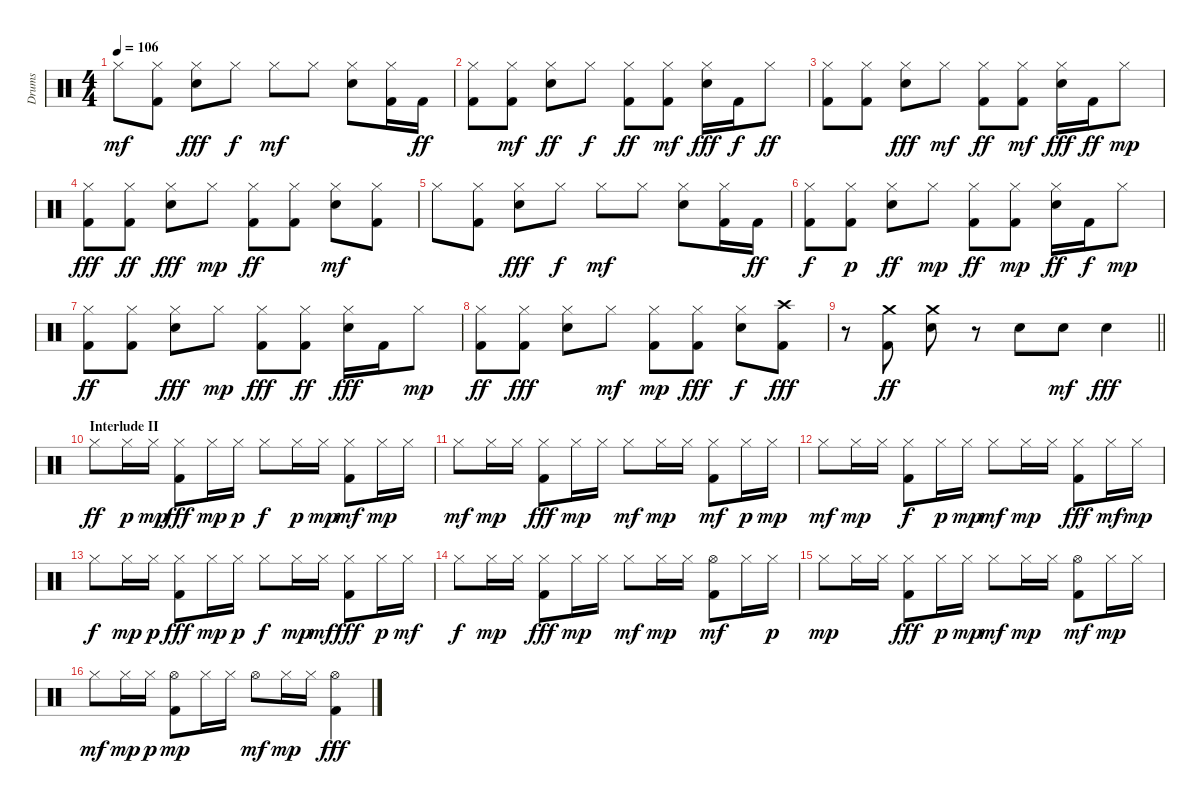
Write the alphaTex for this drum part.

\track ("Drums" "Drums") {instrument percussion}
\staff {score}
\articulation defaults
\ts (4 4)
\tempo 106
\clef neutral
\ks c "Hi-Hat (closed)".8{dy mf}
("Kick (hit) 2" "Hi-Hat (closed)").8 ("Hi-Hat (closed)" "Snare (hit) 2").8{dy fff} "Hi-Hat (closed)".8{dy f} "Hi-Hat (closed)".8{dy mf} "Hi-Hat (closed)".8 ("Snare (hit) 2" "Hi-Hat (closed)").8 ("Kick (hit) 2" "Hi-Hat (closed)").16 "Kick (hit) 2".16{dy ff} |
("Hi-Hat (closed)" "Kick (hit) 2").8 ("Kick (hit) 2" "Hi-Hat (closed)").8{dy mf} ("Hi-Hat (closed)" "Snare (hit) 2").8{dy ff} "Hi-Hat (closed)".8{dy f} ("Hi-Hat (closed)" "Kick (hit) 2").8{dy ff} ("Hi-Hat (closed)" "Kick (hit) 2").8{dy mf} ("Hi-Hat (closed)" "Snare (hit) 2").16{dy fff} "Kick (hit) 2".16{dy f} "Hi-Hat (closed)".8{dy ff} |
("Hi-Hat (closed)" "Kick (hit) 2").8 ("Hi-Hat (closed)" "Kick (hit) 2").8 ("Hi-Hat (closed)" "Snare (hit) 2").8{dy fff} "Hi-Hat (closed)".8{dy mf} ("Hi-Hat (closed)" "Kick (hit) 2").8{dy ff} ("Hi-Hat (closed)" "Kick (hit) 2").8{dy mf} ("Hi-Hat (closed)" "Snare (hit) 2").16{dy fff} "Kick (hit) 2".16{dy ff} "Hi-Hat (closed)".8{dy mp} |
("Hi-Hat (closed)" "Kick (hit) 2").8{dy fff} ("Hi-Hat (closed)" "Kick (hit) 2").8{dy ff} ("Snare (hit) 2" "Hi-Hat (closed)").8{dy fff} "Hi-Hat (closed)".8{dy mp} ("Hi-Hat (closed)" "Kick (hit) 2").8{dy ff} ("Hi-Hat (closed)" "Kick (hit) 2").8 ("Snare (hit) 2" "Hi-Hat (closed)").8{dy mf} ("Kick (hit) 2" "Hi-Hat (closed)").8 |
"Hi-Hat (closed)".8 ("Kick (hit) 2" "Hi-Hat (closed)").8 ("Hi-Hat (closed)" "Snare (hit) 2").8{dy fff} "Hi-Hat (closed)".8{dy f} "Hi-Hat (closed)".8{dy mf} "Hi-Hat (closed)".8 ("Snare (hit) 2" "Hi-Hat (closed)").8 ("Kick (hit) 2" "Hi-Hat (closed)").16 "Kick (hit) 2".16{dy ff} |
("Kick (hit) 2" "Hi-Hat (closed)").8{dy f} ("Kick (hit) 2" "Hi-Hat (closed)").8{dy p} ("Hi-Hat (closed)" "Snare (hit) 2").8{dy ff} "Hi-Hat (closed)".8{dy mp} ("Hi-Hat (closed)" "Kick (hit) 2").8{dy ff} ("Kick (hit) 2" "Hi-Hat (closed)").8{dy mp} ("Snare (hit) 2" "Hi-Hat (closed)").16{dy ff} "Kick (hit) 2".16{dy f} "Hi-Hat (closed)".8{dy mp} |
("Hi-Hat (closed)" "Kick (hit) 2").8{dy ff} ("Hi-Hat (closed)" "Kick (hit) 2").8 ("Hi-Hat (closed)" "Snare (hit) 2").8{dy fff} "Hi-Hat (closed)".8{dy mp} ("Hi-Hat (closed)" "Kick (hit) 2").8{dy fff} ("Hi-Hat (closed)" "Kick (hit) 2").8{dy ff} ("Snare (hit) 2" "Hi-Hat (closed)").16{dy fff} "Kick (hit) 2".16 "Hi-Hat (closed)".8{dy mp} |
("Hi-Hat (closed)" "Kick (hit) 2").8{dy ff} ("Hi-Hat (closed)" "Kick (hit) 2").8{dy fff} ("Hi-Hat (closed)" "Snare (hit) 2").8 "Hi-Hat (closed)".8{dy mf} ("Kick (hit) 2" "Hi-Hat (closed)").8{dy mp} ("Hi-Hat (closed)" "Kick (hit) 2").8{dy fff} ("Snare (hit) 2" "Hi-Hat (closed)").8{dy f} ("Crash high (hit)" "Kick (hit) 2").8{dy fff} |
\barLineRight lightlight
r.8 ("Kick (hit) 2" "Crash medium (hit)").8{dy ff} ("Snare (hit) 2" "Crash medium (hit)").8 r.8 "Snare (hit) 2".8 "Snare (hit) 2".8{dy mf} "Snare (hit) 2".4{dy fff} |
\section ("" "Interlude II")
"Hi-Hat (closed)".8{dy ff} "Hi-Hat (closed)".16{dy p} "Hi-Hat (closed)".16{dy mp} ("Hi-Hat (closed)" "Kick (hit) 2").8{dy fff} "Hi-Hat (closed)".16{dy mp} "Hi-Hat (closed)".16{dy p} "Hi-Hat (closed)".8{dy f} "Hi-Hat (closed)".16{dy p} "Hi-Hat (closed)".16{dy mp} ("Kick (hit) 2" "Hi-Hat (closed)").8{dy mf} "Hi-Hat (closed)".16{dy mp} "Hi-Hat (closed)".16 |
"Hi-Hat (closed)".8{dy mf} "Hi-Hat (closed)".16{dy mp} "Hi-Hat (closed)".16 ("Kick (hit) 2" "Hi-Hat (closed)").8{dy fff} "Hi-Hat (closed)".16{dy mp} "Hi-Hat (closed)".16 "Hi-Hat (closed)".8{dy mf} "Hi-Hat (closed)".16{dy mp} "Hi-Hat (closed)".16 ("Kick (hit) 2" "Hi-Hat (closed)").8{dy mf} "Hi-Hat (closed)".16{dy p} "Hi-Hat (closed)".16{dy mp} |
"Hi-Hat (closed)".8{dy mf} "Hi-Hat (closed)".16{dy mp} "Hi-Hat (closed)".16 ("Hi-Hat (closed)" "Kick (hit) 2").8{dy f} "Hi-Hat (closed)".16{dy p} "Hi-Hat (closed)".16{dy mp} "Hi-Hat (closed)".8{dy mf} "Hi-Hat (closed)".16{dy mp} "Hi-Hat (closed)".16 ("Kick (hit) 2" "Hi-Hat (closed)").8{dy fff} "Hi-Hat (closed)".16{dy mf} "Hi-Hat (closed)".16{dy mp} |
"Hi-Hat (closed)".8{dy f} "Hi-Hat (closed)".16{dy mp} "Hi-Hat (closed)".16{dy p} ("Hi-Hat (closed)" "Kick (hit) 2").8{dy fff} "Hi-Hat (closed)".16{dy mp} "Hi-Hat (closed)".16{dy p} "Hi-Hat (closed)".8{dy f} "Hi-Hat (closed)".16{dy mp} "Hi-Hat (closed)".16{dy mf} ("Kick (hit) 2" "Hi-Hat (closed)").8{dy fff} "Hi-Hat (closed)".16{dy p} "Hi-Hat (closed)".16{dy mf} |
"Hi-Hat (closed)".8{dy f} "Hi-Hat (closed)".16{dy mp} "Hi-Hat (closed)".16 ("Hi-Hat (closed)" "Kick (hit) 2").8{dy fff} "Hi-Hat (closed)".16{dy mp} "Hi-Hat (closed)".16 "Hi-Hat (closed)".8{dy mf} "Hi-Hat (closed)".16{dy mp} "Hi-Hat (closed)".16 ("Kick (hit) 2" "Hi-Hat (open)").8{dy mf} "Hi-Hat (closed)".16 "Hi-Hat (closed)".16{dy p} |
"Hi-Hat (closed)".8{dy mp} "Hi-Hat (closed)".16 "Hi-Hat (closed)".16 ("Kick (hit) 2" "Hi-Hat (closed)").8{dy fff} "Hi-Hat (closed)".16{dy p} "Hi-Hat (closed)".16{dy mp} "Hi-Hat (closed)".8{dy mf} "Hi-Hat (closed)".16{dy mp} "Hi-Hat (closed)".16 ("Kick (hit) 2" "Hi-Hat (open)").8{dy mf} "Hi-Hat (closed)".16{dy mp} "Hi-Hat (closed)".16 |
"Hi-Hat (closed)".8{dy mf} "Hi-Hat (closed)".16{dy mp} "Hi-Hat (closed)".16{dy p} ("Kick (hit) 2" "Hi-Hat (open)").8{dy mp} "Hi-Hat (closed)".16 "Hi-Hat (closed)".16 "Hi-Hat (open)".8{dy mf} "Hi-Hat (closed)".16{dy mp} "Hi-Hat (closed)".16 ("Hi-Hat (open)" "Kick (hit) 2").4{dy fff}
